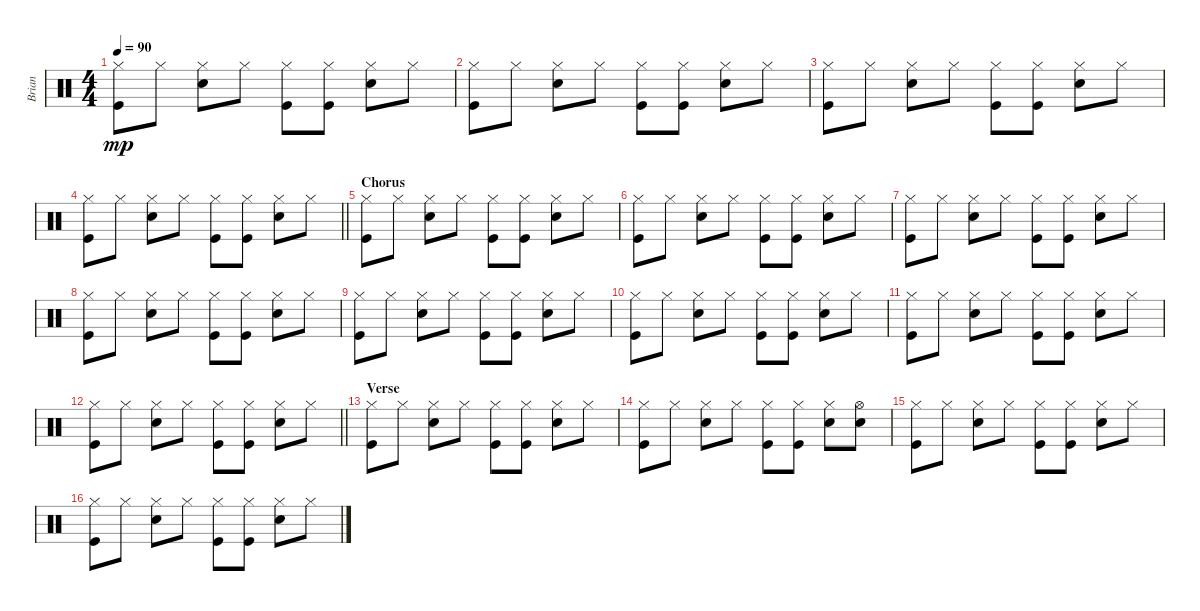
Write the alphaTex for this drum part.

\track ("Brian" "Brian") {instrument percussion}
\staff {score}
\articulation defaults
\ts (4 4)
\tempo 90
\clef neutral
\ks c
("Hi-Hat (closed)" "Kick (hit)").8{dy mp} "Hi-Hat (closed)".8 ("Hi-Hat (closed)" "Snare (hit) 2").8 "Hi-Hat (closed)".8 ("Hi-Hat (closed)" "Kick (hit)").8 ("Hi-Hat (closed)" "Kick (hit)").8 ("Hi-Hat (closed)" "Snare (hit) 2").8 "Hi-Hat (closed)".8 |
("Hi-Hat (closed)" "Kick (hit)").8 "Hi-Hat (closed)".8 ("Hi-Hat (closed)" "Snare (hit) 2").8 "Hi-Hat (closed)".8 ("Hi-Hat (closed)" "Kick (hit)").8 ("Hi-Hat (closed)" "Kick (hit)").8 ("Hi-Hat (closed)" "Snare (hit) 2").8 "Hi-Hat (closed)".8 |
("Hi-Hat (closed)" "Kick (hit)").8 "Hi-Hat (closed)".8 ("Hi-Hat (closed)" "Snare (hit) 2").8 "Hi-Hat (closed)".8 ("Hi-Hat (closed)" "Kick (hit)").8 ("Hi-Hat (closed)" "Kick (hit)").8 ("Hi-Hat (closed)" "Snare (hit) 2").8 "Hi-Hat (closed)".8 |
\barLineRight lightlight
("Hi-Hat (closed)" "Kick (hit)").8 "Hi-Hat (closed)".8 ("Hi-Hat (closed)" "Snare (hit) 2").8 "Hi-Hat (closed)".8 ("Hi-Hat (closed)" "Kick (hit)").8 ("Hi-Hat (closed)" "Kick (hit)").8 ("Hi-Hat (closed)" "Snare (hit) 2").8 "Hi-Hat (closed)".8 |
\section ("" "Chorus")
("Hi-Hat (closed)" "Kick (hit)").8 "Hi-Hat (closed)".8 ("Hi-Hat (closed)" "Snare (hit) 2").8 "Hi-Hat (closed)".8 ("Hi-Hat (closed)" "Kick (hit)").8 ("Hi-Hat (closed)" "Kick (hit)").8 ("Hi-Hat (closed)" "Snare (hit) 2").8 "Hi-Hat (closed)".8 |
("Hi-Hat (closed)" "Kick (hit)").8 "Hi-Hat (closed)".8 ("Hi-Hat (closed)" "Snare (hit) 2").8 "Hi-Hat (closed)".8 ("Hi-Hat (closed)" "Kick (hit)").8 ("Hi-Hat (closed)" "Kick (hit)").8 ("Hi-Hat (closed)" "Snare (hit) 2").8 "Hi-Hat (closed)".8 |
("Hi-Hat (closed)" "Kick (hit)").8 "Hi-Hat (closed)".8 ("Hi-Hat (closed)" "Snare (hit) 2").8 "Hi-Hat (closed)".8 ("Hi-Hat (closed)" "Kick (hit)").8 ("Hi-Hat (closed)" "Kick (hit)").8 ("Hi-Hat (closed)" "Snare (hit) 2").8 "Hi-Hat (closed)".8 |
("Hi-Hat (closed)" "Kick (hit)").8 "Hi-Hat (closed)".8 ("Hi-Hat (closed)" "Snare (hit) 2").8 "Hi-Hat (closed)".8 ("Hi-Hat (closed)" "Kick (hit)").8 ("Hi-Hat (closed)" "Kick (hit)").8 ("Hi-Hat (closed)" "Snare (hit) 2").8 "Hi-Hat (closed)".8 |
("Hi-Hat (closed)" "Kick (hit)").8 "Hi-Hat (closed)".8 ("Hi-Hat (closed)" "Snare (hit) 2").8 "Hi-Hat (closed)".8 ("Hi-Hat (closed)" "Kick (hit)").8 ("Hi-Hat (closed)" "Kick (hit)").8 ("Hi-Hat (closed)" "Snare (hit) 2").8 "Hi-Hat (closed)".8 |
("Hi-Hat (closed)" "Kick (hit)").8 "Hi-Hat (closed)".8 ("Hi-Hat (closed)" "Snare (hit) 2").8 "Hi-Hat (closed)".8 ("Hi-Hat (closed)" "Kick (hit)").8 ("Hi-Hat (closed)" "Kick (hit)").8 ("Hi-Hat (closed)" "Snare (hit) 2").8 "Hi-Hat (closed)".8 |
("Hi-Hat (closed)" "Kick (hit)").8 "Hi-Hat (closed)".8 ("Hi-Hat (closed)" "Snare (hit) 2").8 "Hi-Hat (closed)".8 ("Hi-Hat (closed)" "Kick (hit)").8 ("Hi-Hat (closed)" "Kick (hit)").8 ("Hi-Hat (closed)" "Snare (hit) 2").8 "Hi-Hat (closed)".8 |
\barLineRight lightlight
("Hi-Hat (closed)" "Kick (hit)").8 "Hi-Hat (closed)".8 ("Hi-Hat (closed)" "Snare (hit) 2").8 "Hi-Hat (closed)".8 ("Hi-Hat (closed)" "Kick (hit)").8 ("Hi-Hat (closed)" "Kick (hit)").8 ("Hi-Hat (closed)" "Snare (hit) 2").8 "Hi-Hat (closed)".8 |
\section ("" "Verse")
("Hi-Hat (closed)" "Kick (hit)").8 "Hi-Hat (closed)".8 ("Hi-Hat (closed)" "Snare (hit) 2").8 "Hi-Hat (closed)".8 ("Hi-Hat (closed)" "Kick (hit)").8 ("Hi-Hat (closed)" "Kick (hit)").8 ("Hi-Hat (closed)" "Snare (hit) 2").8 "Hi-Hat (closed)".8 |
("Hi-Hat (closed)" "Kick (hit)").8 "Hi-Hat (closed)".8 ("Hi-Hat (closed)" "Snare (hit) 2").8 "Hi-Hat (closed)".8 ("Hi-Hat (closed)" "Kick (hit)").8 ("Hi-Hat (closed)" "Kick (hit)").8 ("Hi-Hat (closed)" "Snare (hit) 2").8 ("Hi-Hat (open)" "Snare (hit) 2").8 |
("Hi-Hat (closed)" "Kick (hit)").8 "Hi-Hat (closed)".8 ("Hi-Hat (closed)" "Snare (hit) 2").8 "Hi-Hat (closed)".8 ("Hi-Hat (closed)" "Kick (hit)").8 ("Hi-Hat (closed)" "Kick (hit)").8 ("Hi-Hat (closed)" "Snare (hit) 2").8 "Hi-Hat (closed)".8 |
("Hi-Hat (closed)" "Kick (hit)").8 "Hi-Hat (closed)".8 ("Hi-Hat (closed)" "Snare (hit) 2").8 "Hi-Hat (closed)".8 ("Hi-Hat (closed)" "Kick (hit)").8 ("Hi-Hat (closed)" "Kick (hit)").8 ("Hi-Hat (closed)" "Snare (hit) 2").8 "Hi-Hat (closed)".8
